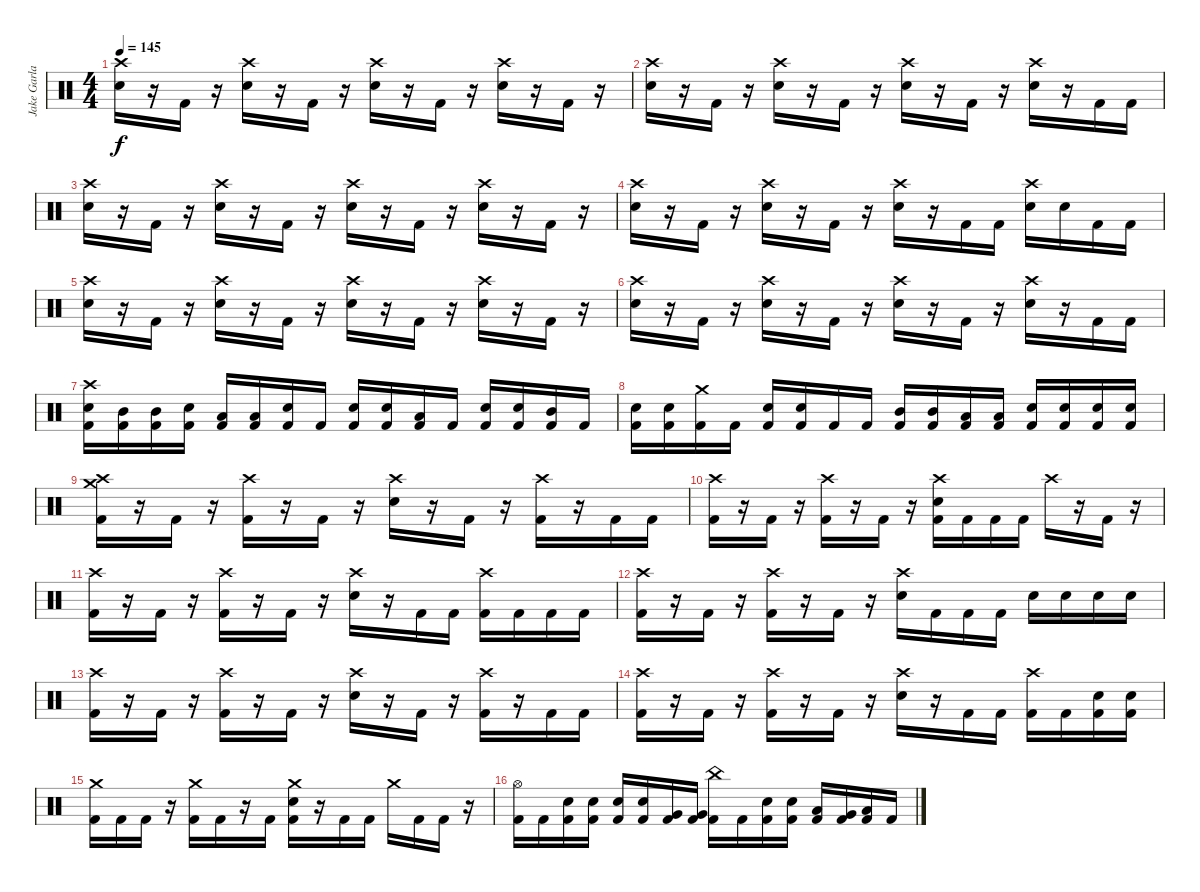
\track ("Jake Garland" "Jake Garla") {instrument percussion}
\staff {score}
\articulation defaults
\ts (4 4)
\tempo 145
\clef neutral
\ks c
("Crash high (hit)" "Electric Snare (hit)").16{dy f} r.16 "Kick (hit) 2".16 r.16 ("Crash high (hit)" "Electric Snare (hit)").16 r.16 "Kick (hit) 2".16 r.16 ("Crash high (hit)" "Electric Snare (hit)").16 r.16 "Kick (hit) 2".16 r.16 ("Crash high (hit)" "Electric Snare (hit)").16 r.16 "Kick (hit) 2".16 r.16 |
("Crash high (hit)" "Electric Snare (hit)").16 r.16 "Kick (hit) 2".16 r.16 ("Crash high (hit)" "Electric Snare (hit)").16 r.16 "Kick (hit) 2".16 r.16 ("Crash high (hit)" "Electric Snare (hit)").16 r.16 "Kick (hit) 2".16 r.16 ("Crash high (hit)" "Electric Snare (hit)").16 r.16 "Kick (hit) 2".16 "Kick (hit) 2".16 |
("Crash high (hit)" "Electric Snare (hit)").16 r.16 "Kick (hit) 2".16 r.16 ("Crash high (hit)" "Electric Snare (hit)").16 r.16 "Kick (hit) 2".16 r.16 ("Crash high (hit)" "Electric Snare (hit)").16 r.16 "Kick (hit) 2".16 r.16 ("Crash high (hit)" "Electric Snare (hit)").16 r.16 "Kick (hit) 2".16 r.16 |
("Crash high (hit)" "Electric Snare (hit)").16 r.16 "Kick (hit) 2".16 r.16 ("Crash high (hit)" "Electric Snare (hit)").16 r.16 "Kick (hit) 2".16 r.16 ("Crash high (hit)" "Electric Snare (hit)").16 r.16 "Kick (hit) 2".16 "Kick (hit) 2".16 ("Crash high (hit)" "Electric Snare (hit)").16 "Electric Snare (hit)".16 "Kick (hit) 2".16 "Kick (hit) 2".16 |
("Crash high (hit)" "Electric Snare (hit)").16 r.16 "Kick (hit) 2".16 r.16 ("Crash high (hit)" "Electric Snare (hit)").16 r.16 "Kick (hit) 2".16 r.16 ("Crash high (hit)" "Electric Snare (hit)").16 r.16 "Kick (hit) 2".16 r.16 ("Crash high (hit)" "Electric Snare (hit)").16 r.16 "Kick (hit) 2".16 r.16 |
("Crash high (hit)" "Electric Snare (hit)").16 r.16 "Kick (hit) 2".16 r.16 ("Crash high (hit)" "Electric Snare (hit)").16 r.16 "Kick (hit) 2".16 r.16 ("Crash high (hit)" "Electric Snare (hit)").16 r.16 "Kick (hit) 2".16 r.16 ("Crash high (hit)" "Electric Snare (hit)").16 r.16 "Kick (hit) 2".16 "Kick (hit) 2".16 |
("Crash high (hit)" "Electric Snare (hit)" "Kick (hit) 2").16 ("Mid Tom (hit)" "Kick (hit) 2").16 ("Mid Tom (hit)" "Kick (hit) 2").16 ("Electric Snare (hit)" "Kick (hit) 2").16 ("Low Tom (hit)" "Kick (hit) 2").16 ("Low Tom (hit)" "Kick (hit) 2").16 ("Electric Snare (hit)" "Kick (hit) 2").16 "Kick (hit) 2".16 ("Electric Snare (hit)" "Kick (hit) 2").16 ("Electric Snare (hit)" "Kick (hit) 2").16 ("Low Tom (hit)" "Kick (hit) 2").16 "Kick (hit) 2".16 ("Electric Snare (hit)" "Kick (hit) 2").16 ("Electric Snare (hit)" "Kick (hit) 2").16 ("Mid Tom (hit)" "Kick (hit) 2").16 "Kick (hit) 2".16 |
("Electric Snare (hit)" "Kick (hit) 2").16 ("Electric Snare (hit)" "Kick (hit) 2").16 ("Crash medium (hit)" "Kick (hit) 2").16 "Kick (hit) 2".16 ("Electric Snare (hit)" "Kick (hit) 2").16 ("Electric Snare (hit)" "Kick (hit) 2").16 "Kick (hit) 2".16 "Kick (hit) 2".16 ("Mid Tom (hit)" "Kick (hit) 2").16 ("Mid Tom (hit)" "Kick (hit) 2").16 ("Low Tom (hit)" "Kick (hit) 2").16 ("Low Tom (hit)" "Kick (hit) 2").16 ("Electric Snare (hit)" "Kick (hit) 2").16 ("Electric Snare (hit)" "Kick (hit) 2").16 ("Electric Snare (hit)" "Kick (hit) 2").16 ("Electric Snare (hit)" "Kick (hit) 2").16 |
("Crash medium (hit)" "Crash high (hit)" "Kick (hit) 2").16 r.16 "Kick (hit) 2".16 r.16 ("Crash high (hit)" "Kick (hit) 2").16 r.16 "Kick (hit) 2".16 r.16 ("Crash high (hit)" "Electric Snare (hit)").16 r.16 "Kick (hit) 2".16 r.16 ("Crash high (hit)" "Kick (hit) 2").16 r.16 "Kick (hit) 2".16 "Kick (hit) 2".16 |
("Crash high (hit)" "Kick (hit) 2").16 r.16 "Kick (hit) 2".16 r.16 ("Crash high (hit)" "Kick (hit) 2").16 r.16 "Kick (hit) 2".16 r.16 ("Crash high (hit)" "Electric Snare (hit)" "Kick (hit) 2").16 "Kick (hit) 2".16 "Kick (hit) 2".16 "Kick (hit) 2".16 "Crash high (hit)".16 r.16 "Kick (hit) 2".16 r.16 |
("Crash high (hit)" "Kick (hit) 2").16 r.16 "Kick (hit) 2".16 r.16 ("Crash high (hit)" "Kick (hit) 2").16 r.16 "Kick (hit) 2".16 r.16 ("Crash high (hit)" "Electric Snare (hit)").16 r.16 "Kick (hit) 2".16 "Kick (hit) 2".16 ("Crash high (hit)" "Kick (hit) 2").16 "Kick (hit) 2".16 "Kick (hit) 2".16 "Kick (hit) 2".16 |
("Crash high (hit)" "Kick (hit) 2").16 r.16 "Kick (hit) 2".16 r.16 ("Crash high (hit)" "Kick (hit) 2").16 r.16 "Kick (hit) 2".16 r.16 ("Crash high (hit)" "Electric Snare (hit)").16 "Kick (hit) 2".16 "Kick (hit) 2".16 "Kick (hit) 2".16 "Electric Snare (hit)".16 "Electric Snare (hit)".16 "Electric Snare (hit)".16 "Electric Snare (hit)".16 |
("Crash high (hit)" "Kick (hit) 2").16 r.16 "Kick (hit) 2".16 r.16 ("Crash high (hit)" "Kick (hit) 2").16 r.16 "Kick (hit) 2".16 r.16 ("Crash high (hit)" "Electric Snare (hit)").16 r.16 "Kick (hit) 2".16 r.16 ("Crash high (hit)" "Kick (hit) 2").16 r.16 "Kick (hit) 2".16 "Kick (hit) 2".16 |
("Crash high (hit)" "Kick (hit) 2").16 r.16 "Kick (hit) 2".16 r.16 ("Crash high (hit)" "Kick (hit) 2").16 r.16 "Kick (hit) 2".16 r.16 ("Crash high (hit)" "Electric Snare (hit)").16 r.16 "Kick (hit) 2".16 "Kick (hit) 2".16 ("Crash high (hit)" "Kick (hit) 2").16 "Kick (hit) 2".16 ("Electric Snare (hit)" "Kick (hit) 2").16 ("Electric Snare (hit)" "Kick (hit) 2").16 |
("Crash medium (hit)" "Kick (hit) 2").16 "Kick (hit) 2".16 "Kick (hit) 2".16 r.16 ("Crash medium (hit)" "Kick (hit) 2").16 "Kick (hit) 2".16 r.16 "Kick (hit) 2".16 ("Crash medium (hit)" "Electric Snare (hit)" "Kick (hit) 2").16 r.16 "Kick (hit) 2".16 "Kick (hit) 2".16 "Crash medium (hit)".16 "Kick (hit) 2".16 "Kick (hit) 2".16 r.16 |
("Hi-Hat (open)" "Kick (hit) 2").16 "Kick (hit) 2".16 ("Electric Snare (hit)" "Kick (hit) 2").16 ("Electric Snare (hit)" "Kick (hit) 2").16 ("Electric Snare (hit)" "Kick (hit) 2").16 ("Electric Snare (hit)" "Kick (hit) 2").16 ("Very Low Tom (hit)" "Kick (hit) 2").16 ("Very Low Tom (hit)" "Kick (hit) 2").16 ("China (hit)" "Kick (hit) 2").16 "Kick (hit) 2".16 ("Electric Snare (hit)" "Kick (hit) 2").16 ("Electric Snare (hit)" "Kick (hit) 2").16 ("Low Tom (hit)" "Kick (hit) 2").16 ("Very Low Tom (hit)" "Kick (hit) 2").16 ("Low Floor Tom (hit)" "Kick (hit) 2").16 "Kick (hit) 2".16
